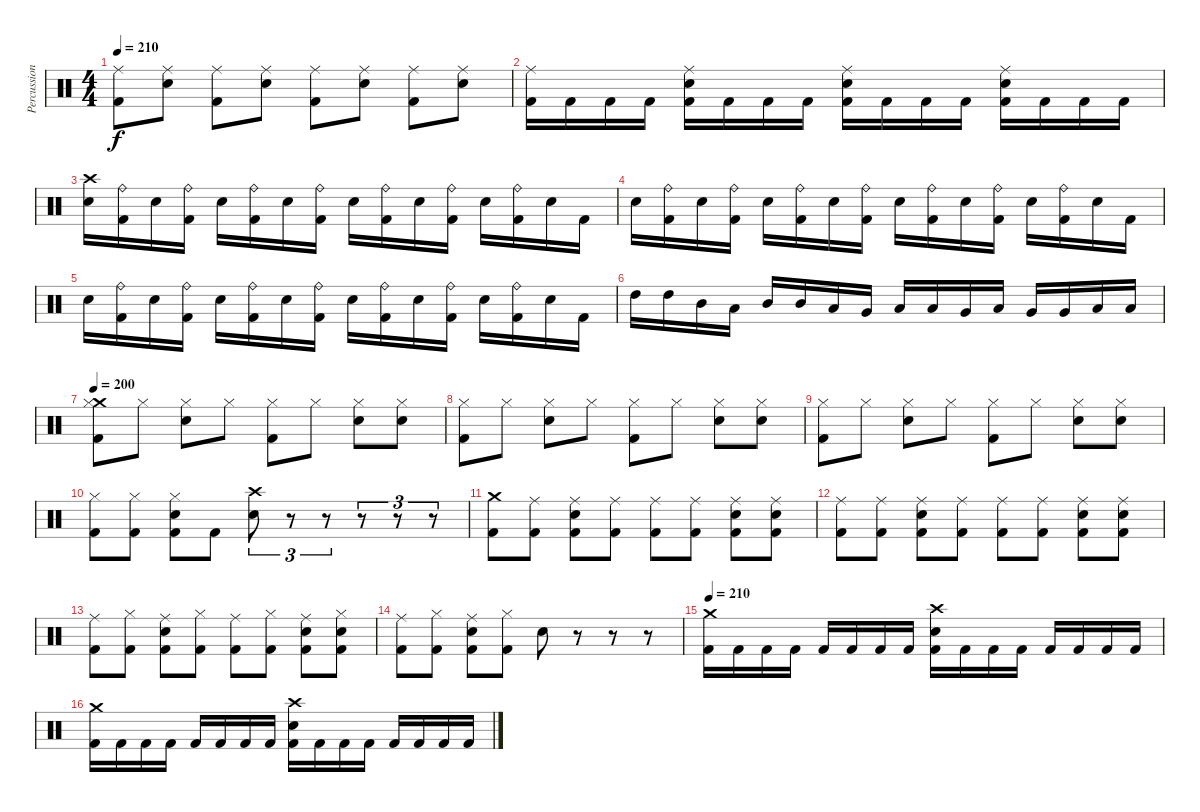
\track ("Percussion" "Percussion") {instrument percussion}
\staff {score}
\articulation defaults
\ts (4 4)
\tempo 210
\clef neutral
\ks c
("Ride (middle)" "Kick (hit) 2").8{dy f} ("Ride (middle)" "Snare (hit) 2").8 ("Ride (middle)" "Kick (hit) 2").8 ("Ride (middle)" "Snare (hit) 2").8 ("Ride (middle)" "Kick (hit) 2").8 ("Ride (middle)" "Snare (hit) 2").8 ("Ride (middle)" "Kick (hit) 2").8 ("Ride (middle)" "Snare (hit) 2").8 |
("Ride (middle)" "Kick (hit) 2").16 "Kick (hit) 2".16 "Kick (hit) 2".16 "Kick (hit) 2".16 ("Ride (middle)" "Snare (hit) 2" "Kick (hit) 2").16 "Kick (hit) 2".16 "Kick (hit) 2".16 "Kick (hit) 2".16 ("Ride (middle)" "Snare (hit) 2" "Kick (hit) 2").16 "Kick (hit) 2".16 "Kick (hit) 2".16 "Kick (hit) 2".16 ("Ride (middle)" "Snare (hit) 2" "Kick (hit) 2").16 "Kick (hit) 2".16 "Kick (hit) 2".16 "Kick (hit) 2".16 |
("Crash high (hit)" "Snare (hit) 2").16 ("Ride (bell)" "Kick (hit) 2").16 "Snare (hit) 2".16 ("Ride (bell)" "Kick (hit) 2").16 "Snare (hit) 2".16 ("Ride (bell)" "Kick (hit) 2").16 "Snare (hit) 2".16 ("Ride (bell)" "Kick (hit) 2").16 "Snare (hit) 2".16 ("Ride (bell)" "Kick (hit) 2").16 "Snare (hit) 2".16 ("Ride (bell)" "Kick (hit) 2").16 "Snare (hit) 2".16 ("Ride (bell)" "Kick (hit) 2").16 "Snare (hit) 2".16 "Kick (hit) 2".16 |
"Snare (hit) 2".16 ("Ride (bell)" "Kick (hit) 2").16 "Snare (hit) 2".16 ("Ride (bell)" "Kick (hit) 2").16 "Snare (hit) 2".16 ("Ride (bell)" "Kick (hit) 2").16 "Snare (hit) 2".16 ("Ride (bell)" "Kick (hit) 2").16 "Snare (hit) 2".16 ("Ride (bell)" "Kick (hit) 2").16 "Snare (hit) 2".16 ("Ride (bell)" "Kick (hit) 2").16 "Snare (hit) 2".16 ("Ride (bell)" "Kick (hit) 2").16 "Snare (hit) 2".16 "Kick (hit) 2".16 |
"Snare (hit) 2".16 ("Ride (bell)" "Kick (hit) 2").16 "Snare (hit) 2".16 ("Ride (bell)" "Kick (hit) 2").16 "Snare (hit) 2".16 ("Ride (bell)" "Kick (hit) 2").16 "Snare (hit) 2".16 ("Ride (bell)" "Kick (hit) 2").16 "Snare (hit) 2".16 ("Ride (bell)" "Kick (hit) 2").16 "Snare (hit) 2".16 ("Ride (bell)" "Kick (hit) 2").16 "Snare (hit) 2".16 ("Ride (bell)" "Kick (hit) 2").16 "Snare (hit) 2".16 "Kick (hit) 2".16 |
"High Tom (hit)".16 "High Tom (hit)".16 "Mid Tom (hit)".16 "Low Tom (hit)".16 "Mid Tom (hit)".16 "Mid Tom (hit)".16 "Low Tom (hit)".16 "Very Low Tom (hit)".16 "Low Tom (hit)".16 "Low Tom (hit)".16 "Very Low Tom (hit)".16 "Low Floor Tom (hit)".16 "Very Low Tom (hit)".16 "Very Low Tom (hit)".16 "Low Floor Tom (hit)".16 "Low Floor Tom (hit)".16 |
\tempo 200
("Crash medium (hit)" "Hi-Hat (closed)" "Kick (hit) 2").8 "Hi-Hat (closed)".8 ("Hi-Hat (closed)" "Snare (hit) 2").8 "Hi-Hat (closed)".8 ("Hi-Hat (closed)" "Kick (hit) 2").8 "Hi-Hat (closed)".8 ("Hi-Hat (closed)" "Snare (hit) 2").8 ("Hi-Hat (closed)" "Snare (hit) 2").8 |
("Hi-Hat (closed)" "Kick (hit) 2").8 "Hi-Hat (closed)".8 ("Hi-Hat (closed)" "Snare (hit) 2").8 "Hi-Hat (closed)".8 ("Hi-Hat (closed)" "Kick (hit) 2").8 "Hi-Hat (closed)".8 ("Hi-Hat (closed)" "Snare (hit) 2").8 ("Hi-Hat (closed)" "Snare (hit) 2").8 |
("Hi-Hat (closed)" "Kick (hit) 2").8 "Hi-Hat (closed)".8 ("Hi-Hat (closed)" "Snare (hit) 2").8 "Hi-Hat (closed)".8 ("Hi-Hat (closed)" "Kick (hit) 2").8 "Hi-Hat (closed)".8 ("Hi-Hat (closed)" "Snare (hit) 2").8 ("Hi-Hat (closed)" "Snare (hit) 2").8 |
("Hi-Hat (closed)" "Kick (hit) 2").8 ("Hi-Hat (closed)" "Kick (hit) 2").8 ("Hi-Hat (closed)" "Snare (hit) 2" "Kick (hit) 2").8 "Kick (hit) 2".8 ("Crash high (hit)" "Snare (hit) 2").8{tu (3 2)} r.8{tu (3 2)} r.8{tu (3 2)} r.8{tu (3 2)} r.8{tu (3 2)} r.8{tu (3 2)} |
("Crash medium (hit)" "Kick (hit) 2").8 ("Ride (middle)" "Kick (hit) 2").8 ("Ride (middle)" "Snare (hit) 2" "Kick (hit) 2").8 ("Ride (middle)" "Kick (hit) 2").8 ("Ride (middle)" "Kick (hit) 2").8 ("Ride (middle)" "Kick (hit) 2").8 ("Ride (middle)" "Snare (hit) 2" "Kick (hit) 2").8 ("Ride (middle)" "Snare (hit) 2" "Kick (hit) 2").8 |
("Ride (middle)" "Kick (hit) 2").8 ("Ride (middle)" "Kick (hit) 2").8 ("Ride (middle)" "Snare (hit) 2" "Kick (hit) 2").8 ("Ride (middle)" "Kick (hit) 2").8 ("Ride (middle)" "Kick (hit) 2").8 ("Ride (middle)" "Kick (hit) 2").8 ("Ride (middle)" "Snare (hit) 2" "Kick (hit) 2").8 ("Ride (middle)" "Snare (hit) 2" "Kick (hit) 2").8 |
("Ride (middle)" "Kick (hit) 2").8 ("Hi-Hat (closed)" "Kick (hit) 2").8 ("Ride (middle)" "Snare (hit) 2" "Kick (hit) 2").8 ("Hi-Hat (closed)" "Kick (hit) 2").8 ("Ride (middle)" "Kick (hit) 2").8 ("Hi-Hat (closed)" "Kick (hit) 2").8 ("Ride (middle)" "Snare (hit) 2" "Kick (hit) 2").8 ("Hi-Hat (closed)" "Snare (hit) 2" "Kick (hit) 2").8 |
("Ride (middle)" "Kick (hit) 2").8 ("Hi-Hat (closed)" "Kick (hit) 2").8 ("Ride (middle)" "Snare (hit) 2" "Kick (hit) 2").8 ("Hi-Hat (closed)" "Kick (hit) 2").8 "Snare (hit) 2".8 r.8 r.8 r.8 |
\tempo 210
("Crash medium (hit)" "Kick (hit) 2").16 "Kick (hit) 2".16 "Kick (hit) 2".16 "Kick (hit) 2".16 "Kick (hit) 2".16 "Kick (hit) 2".16 "Kick (hit) 2".16 "Kick (hit) 2".16 ("Crash high (hit)" "Snare (hit) 2" "Kick (hit) 2").16 "Kick (hit) 2".16 "Kick (hit) 2".16 "Kick (hit) 2".16 "Kick (hit) 2".16 "Kick (hit) 2".16 "Kick (hit) 2".16 "Kick (hit) 2".16 |
("Crash medium (hit)" "Kick (hit) 2").16 "Kick (hit) 2".16 "Kick (hit) 2".16 "Kick (hit) 2".16 "Kick (hit) 2".16 "Kick (hit) 2".16 "Kick (hit) 2".16 "Kick (hit) 2".16 ("Crash high (hit)" "Snare (hit) 2" "Kick (hit) 2").16 "Kick (hit) 2".16 "Kick (hit) 2".16 "Kick (hit) 2".16 "Kick (hit) 2".16 "Kick (hit) 2".16 "Kick (hit) 2".16 "Kick (hit) 2".16
